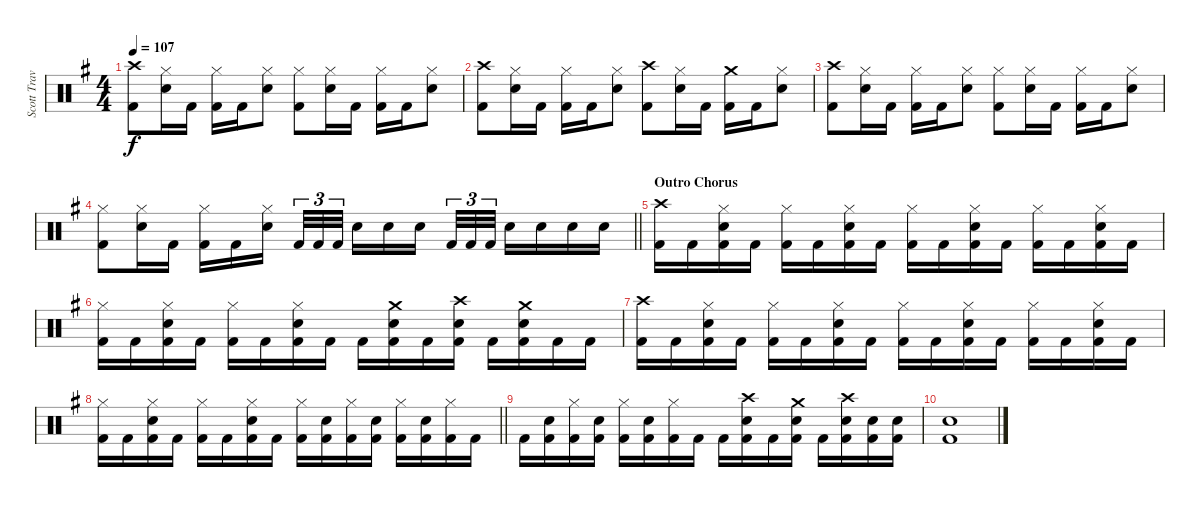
\track ("Scott Travis" "Scott Trav") {instrument percussion}
\staff {score}
\articulation defaults
\ts (4 4)
\tempo 107
\clef neutral
\ks eminor
("Crash high (hit)" "Kick (hit) 2").8{dy f} ("Hi-Hat (closed)" "Snare (hit) 2").16 "Kick (hit) 2".16 ("Hi-Hat (closed)" "Kick (hit) 2").16 "Kick (hit) 2".16 ("Hi-Hat (closed)" "Snare (hit) 2").8 ("Hi-Hat (closed)" "Kick (hit) 2").8 ("Hi-Hat (closed)" "Snare (hit) 2").16 "Kick (hit) 2".16 ("Hi-Hat (closed)" "Kick (hit) 2").16 "Kick (hit) 2".16 ("Hi-Hat (closed)" "Snare (hit) 2").8 |
("Crash high (hit)" "Kick (hit) 2").8 ("Hi-Hat (closed)" "Snare (hit) 2").16 "Kick (hit) 2".16 ("Hi-Hat (closed)" "Kick (hit) 2").16 "Kick (hit) 2".16 ("Hi-Hat (closed)" "Snare (hit) 2").8 ("Crash high (hit)" "Kick (hit) 2").8 ("Hi-Hat (closed)" "Snare (hit) 2").16 "Kick (hit) 2".16 ("Crash medium (hit)" "Kick (hit) 2").16 "Kick (hit) 2".16 ("Hi-Hat (closed)" "Snare (hit) 2").8 |
("Crash high (hit)" "Kick (hit) 2").8 ("Hi-Hat (closed)" "Snare (hit) 2").16 "Kick (hit) 2".16 ("Hi-Hat (closed)" "Kick (hit) 2").16 "Kick (hit) 2".16 ("Hi-Hat (closed)" "Snare (hit) 2").8 ("Hi-Hat (closed)" "Kick (hit) 2").8 ("Hi-Hat (closed)" "Snare (hit) 2").16 "Kick (hit) 2".16 ("Hi-Hat (closed)" "Kick (hit) 2").16 "Kick (hit) 2".16 ("Hi-Hat (closed)" "Snare (hit) 2").8 |
\barLineRight lightlight
("Hi-Hat (closed)" "Kick (hit) 2").8 ("Hi-Hat (closed)" "Snare (hit) 2").16 "Kick (hit) 2".16 ("Hi-Hat (closed)" "Kick (hit) 2").16 "Kick (hit) 2".16 ("Hi-Hat (closed)" "Snare (hit) 2").16{beam splitsecondary} "Kick (hit) 2".32{tu (3 2)} "Kick (hit) 2".32{tu (3 2)} "Kick (hit) 2".32{tu (3 2)} "Snare (hit) 2".16 "Snare (hit) 2".16 "Snare (hit) 2".16{beam splitsecondary} "Kick (hit) 2".32{tu (3 2)} "Kick (hit) 2".32{tu (3 2)} "Kick (hit) 2".32{tu (3 2)} "Snare (hit) 2".16 "Snare (hit) 2".16 "Snare (hit) 2".16 "Snare (hit) 2".16 |
\section ("" "Outro Chorus")
("Crash high (hit)" "Kick (hit) 2").16 "Kick (hit) 2".16 ("Hi-Hat (closed)" "Snare (hit) 2" "Kick (hit) 2").16 "Kick (hit) 2".16 ("Hi-Hat (closed)" "Kick (hit) 2").16 "Kick (hit) 2".16 ("Hi-Hat (closed)" "Snare (hit) 2" "Kick (hit) 2").16 "Kick (hit) 2".16 ("Hi-Hat (closed)" "Kick (hit) 2").16 "Kick (hit) 2".16 ("Hi-Hat (closed)" "Snare (hit) 2" "Kick (hit) 2").16 "Kick (hit) 2".16 ("Hi-Hat (closed)" "Kick (hit) 2").16 "Kick (hit) 2".16 ("Hi-Hat (closed)" "Snare (hit) 2" "Kick (hit) 2").16 "Kick (hit) 2".16 |
("Hi-Hat (closed)" "Kick (hit) 2").16 "Kick (hit) 2".16 ("Hi-Hat (closed)" "Snare (hit) 2" "Kick (hit) 2").16 "Kick (hit) 2".16 ("Hi-Hat (closed)" "Kick (hit) 2").16 "Kick (hit) 2".16 ("Hi-Hat (closed)" "Snare (hit) 2" "Kick (hit) 2").16 "Kick (hit) 2".16 "Kick (hit) 2".16 ("Crash medium (hit)" "Snare (hit) 2" "Kick (hit) 2").16 "Kick (hit) 2".16 ("Crash high (hit)" "Snare (hit) 2" "Kick (hit) 2").16 "Kick (hit) 2".16 ("Crash medium (hit)" "Snare (hit) 2" "Kick (hit) 2").16 "Kick (hit) 2".16 "Kick (hit) 2".16 |
("Crash high (hit)" "Kick (hit) 2").16 "Kick (hit) 2".16 ("Hi-Hat (closed)" "Snare (hit) 2" "Kick (hit) 2").16 "Kick (hit) 2".16 ("Hi-Hat (closed)" "Kick (hit) 2").16 "Kick (hit) 2".16 ("Hi-Hat (closed)" "Snare (hit) 2" "Kick (hit) 2").16 "Kick (hit) 2".16 ("Hi-Hat (closed)" "Kick (hit) 2").16 "Kick (hit) 2".16 ("Hi-Hat (closed)" "Snare (hit) 2" "Kick (hit) 2").16 "Kick (hit) 2".16 ("Hi-Hat (closed)" "Kick (hit) 2").16 "Kick (hit) 2".16 ("Hi-Hat (closed)" "Snare (hit) 2" "Kick (hit) 2").16 "Kick (hit) 2".16 |
\barLineRight lightlight
("Hi-Hat (closed)" "Kick (hit) 2").16 "Kick (hit) 2".16 ("Hi-Hat (closed)" "Snare (hit) 2" "Kick (hit) 2").16 "Kick (hit) 2".16 ("Hi-Hat (closed)" "Kick (hit) 2").16 "Kick (hit) 2".16 ("Hi-Hat (closed)" "Snare (hit) 2" "Kick (hit) 2").16 "Kick (hit) 2".16 ("Hi-Hat (closed)" "Kick (hit) 2").16 ("Snare (hit) 2" "Kick (hit) 2").16 ("Hi-Hat (closed)" "Kick (hit) 2").16 ("Snare (hit) 2" "Kick (hit) 2").16 ("Hi-Hat (closed)" "Kick (hit) 2").16 ("Snare (hit) 2" "Kick (hit) 2").16 ("Hi-Hat (closed)" "Kick (hit) 2").16 "Kick (hit) 2".16 |
"Kick (hit) 2".16 ("Snare (hit) 2" "Kick (hit) 2").16 ("Hi-Hat (closed)" "Kick (hit) 2").16 ("Snare (hit) 2" "Kick (hit) 2").16 ("Hi-Hat (closed)" "Kick (hit) 2").16 ("Snare (hit) 2" "Kick (hit) 2").16 ("Hi-Hat (closed)" "Kick (hit) 2").16 "Kick (hit) 2".16 "Kick (hit) 2".16 ("Crash high (hit)" "Snare (hit) 2" "Kick (hit) 2").16 "Kick (hit) 2".16 ("Crash medium (hit)" "Snare (hit) 2" "Kick (hit) 2").16 "Kick (hit) 2".16 ("Crash high (hit)" "Snare (hit) 2" "Kick (hit) 2").16 ("Snare (hit) 2" "Kick (hit) 2").16 ("Snare (hit) 2" "Kick (hit) 2").16 |
("Snare (hit) 2" "Kick (hit) 2").1
